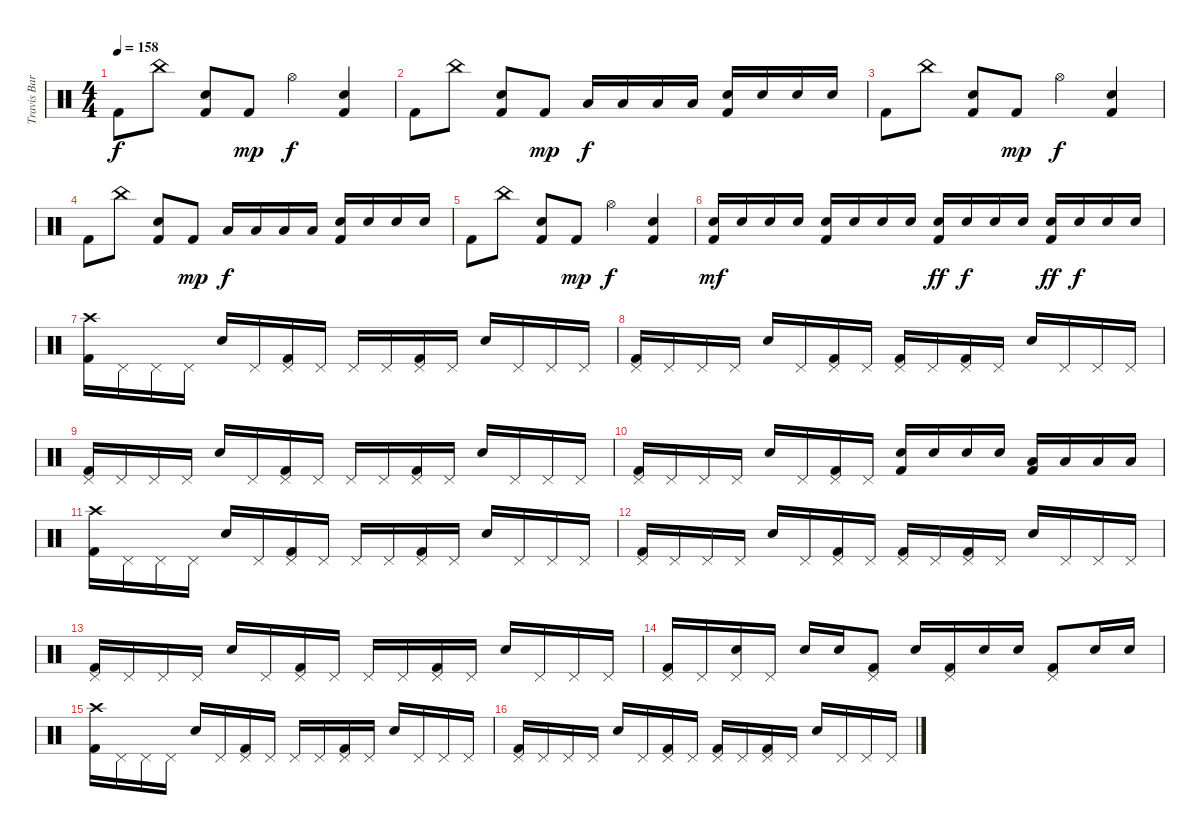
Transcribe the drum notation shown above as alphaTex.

\track ("Travis Barker - Drums" "Travis Bar") {instrument percussion}
\staff {score}
\articulation defaults
\ts (4 4)
\tempo 158
\clef neutral
\ks c "Kick (hit) 2".8{dy f} "China (hit)".8
("Electric Snare (hit)" "Kick (hit) 2").8 "Kick (hit) 2".8{dy mp} "Hi-Hat (open)".4{dy f} ("Electric Snare (hit)" "Kick (hit) 2").4 |
"Kick (hit) 2".8 "China (hit)".8 ("Electric Snare (hit)" "Kick (hit) 2").8 "Kick (hit) 2".8{dy mp} "Low Tom (hit)".16{dy f} "Low Tom (hit)".16 "Low Tom (hit)".16 "Low Tom (hit)".16 ("Electric Snare (hit)" "Kick (hit) 2").16 "Electric Snare (hit)".16 "Electric Snare (hit)".16 "Electric Snare (hit)".16 |
"Kick (hit) 2".8 "China (hit)".8 ("Electric Snare (hit)" "Kick (hit) 2").8 "Kick (hit) 2".8{dy mp} "Hi-Hat (open)".4{dy f} ("Electric Snare (hit)" "Kick (hit) 2").4 |
"Kick (hit) 2".8 "China (hit)".8 ("Electric Snare (hit)" "Kick (hit) 2").8 "Kick (hit) 2".8{dy mp} "Low Tom (hit)".16{dy f} "Low Tom (hit)".16 "Low Tom (hit)".16 "Low Tom (hit)".16 ("Electric Snare (hit)" "Kick (hit) 2").16 "Electric Snare (hit)".16 "Electric Snare (hit)".16 "Electric Snare (hit)".16 |
"Kick (hit) 2".8 "China (hit)".8 ("Electric Snare (hit)" "Kick (hit) 2").8 "Kick (hit) 2".8{dy mp} "Hi-Hat (open)".4{dy f} ("Electric Snare (hit)" "Kick (hit) 2").4 |
("Electric Snare (hit)" "Kick (hit) 2").16{dy mf} "Electric Snare (hit)".16 "Electric Snare (hit)".16 "Electric Snare (hit)".16 ("Electric Snare (hit)" "Kick (hit) 2").16 "Electric Snare (hit)".16 "Electric Snare (hit)".16 "Electric Snare (hit)".16 ("Electric Snare (hit)" "Kick (hit) 2").16{dy ff} "Electric Snare (hit)".16{dy f} "Electric Snare (hit)".16 "Electric Snare (hit)".16 ("Electric Snare (hit)" "Kick (hit) 2").16{dy ff} "Electric Snare (hit)".16{dy f} "Electric Snare (hit)".16 "Electric Snare (hit)".16 |
("Crash high (hit)" "Kick (hit) 2").16 "Pedal Hi-Hat (hit)".16 "Pedal Hi-Hat (hit)".16 "Pedal Hi-Hat (hit)".16 "Electric Snare (hit)".16 "Pedal Hi-Hat (hit)".16 ("Pedal Hi-Hat (hit)" "Kick (hit) 2").16 "Pedal Hi-Hat (hit)".16 "Pedal Hi-Hat (hit)".16 "Pedal Hi-Hat (hit)".16 ("Pedal Hi-Hat (hit)" "Kick (hit) 2").16 "Pedal Hi-Hat (hit)".16 "Electric Snare (hit)".16 "Pedal Hi-Hat (hit)".16 "Pedal Hi-Hat (hit)".16 "Pedal Hi-Hat (hit)".16 |
("Pedal Hi-Hat (hit)" "Kick (hit) 2").16 "Pedal Hi-Hat (hit)".16 "Pedal Hi-Hat (hit)".16 "Pedal Hi-Hat (hit)".16 "Electric Snare (hit)".16 "Pedal Hi-Hat (hit)".16 ("Pedal Hi-Hat (hit)" "Kick (hit) 2").16 "Pedal Hi-Hat (hit)".16 ("Pedal Hi-Hat (hit)" "Kick (hit) 2").16 "Pedal Hi-Hat (hit)".16 ("Pedal Hi-Hat (hit)" "Kick (hit) 2").16 "Pedal Hi-Hat (hit)".16 "Electric Snare (hit)".16 "Pedal Hi-Hat (hit)".16 "Pedal Hi-Hat (hit)".16 "Pedal Hi-Hat (hit)".16 |
("Pedal Hi-Hat (hit)" "Kick (hit) 2").16 "Pedal Hi-Hat (hit)".16 "Pedal Hi-Hat (hit)".16 "Pedal Hi-Hat (hit)".16 "Electric Snare (hit)".16 "Pedal Hi-Hat (hit)".16 ("Pedal Hi-Hat (hit)" "Kick (hit) 2").16 "Pedal Hi-Hat (hit)".16 "Pedal Hi-Hat (hit)".16 "Pedal Hi-Hat (hit)".16 ("Pedal Hi-Hat (hit)" "Kick (hit) 2").16 "Pedal Hi-Hat (hit)".16 "Electric Snare (hit)".16 "Pedal Hi-Hat (hit)".16 "Pedal Hi-Hat (hit)".16 "Pedal Hi-Hat (hit)".16 |
("Pedal Hi-Hat (hit)" "Kick (hit) 2").16 "Pedal Hi-Hat (hit)".16 "Pedal Hi-Hat (hit)".16 "Pedal Hi-Hat (hit)".16 "Electric Snare (hit)".16 "Pedal Hi-Hat (hit)".16 ("Pedal Hi-Hat (hit)" "Kick (hit) 2").16 "Pedal Hi-Hat (hit)".16 ("Electric Snare (hit)" "Kick (hit) 2").16 "Electric Snare (hit)".16 "Electric Snare (hit)".16 "Electric Snare (hit)".16 ("Low Tom (hit)" "Kick (hit) 2").16 "Low Tom (hit)".16 "Low Tom (hit)".16 "Low Tom (hit)".16 |
("Crash high (hit)" "Kick (hit) 2").16 "Pedal Hi-Hat (hit)".16 "Pedal Hi-Hat (hit)".16 "Pedal Hi-Hat (hit)".16 "Electric Snare (hit)".16 "Pedal Hi-Hat (hit)".16 ("Pedal Hi-Hat (hit)" "Kick (hit) 2").16 "Pedal Hi-Hat (hit)".16 "Pedal Hi-Hat (hit)".16 "Pedal Hi-Hat (hit)".16 ("Pedal Hi-Hat (hit)" "Kick (hit) 2").16 "Pedal Hi-Hat (hit)".16 "Electric Snare (hit)".16 "Pedal Hi-Hat (hit)".16 "Pedal Hi-Hat (hit)".16 "Pedal Hi-Hat (hit)".16 |
("Pedal Hi-Hat (hit)" "Kick (hit) 2").16 "Pedal Hi-Hat (hit)".16 "Pedal Hi-Hat (hit)".16 "Pedal Hi-Hat (hit)".16 "Electric Snare (hit)".16 "Pedal Hi-Hat (hit)".16 ("Pedal Hi-Hat (hit)" "Kick (hit) 2").16 "Pedal Hi-Hat (hit)".16 ("Pedal Hi-Hat (hit)" "Kick (hit) 2").16 "Pedal Hi-Hat (hit)".16 ("Pedal Hi-Hat (hit)" "Kick (hit) 2").16 "Pedal Hi-Hat (hit)".16 "Electric Snare (hit)".16 "Pedal Hi-Hat (hit)".16 "Pedal Hi-Hat (hit)".16 "Pedal Hi-Hat (hit)".16 |
("Pedal Hi-Hat (hit)" "Kick (hit) 2").16 "Pedal Hi-Hat (hit)".16 "Pedal Hi-Hat (hit)".16 "Pedal Hi-Hat (hit)".16 "Electric Snare (hit)".16 "Pedal Hi-Hat (hit)".16 ("Pedal Hi-Hat (hit)" "Kick (hit) 2").16 "Pedal Hi-Hat (hit)".16 "Pedal Hi-Hat (hit)".16 "Pedal Hi-Hat (hit)".16 ("Pedal Hi-Hat (hit)" "Kick (hit) 2").16 "Pedal Hi-Hat (hit)".16 "Electric Snare (hit)".16 "Pedal Hi-Hat (hit)".16 "Pedal Hi-Hat (hit)".16 "Pedal Hi-Hat (hit)".16 |
("Pedal Hi-Hat (hit)" "Kick (hit) 2").16 "Pedal Hi-Hat (hit)".16 ("Pedal Hi-Hat (hit)" "Electric Snare (hit)").16 "Pedal Hi-Hat (hit)".16 "Electric Snare (hit)".16 "Electric Snare (hit)".16 ("Pedal Hi-Hat (hit)" "Kick (hit) 2").8 "Electric Snare (hit)".16 ("Pedal Hi-Hat (hit)" "Kick (hit) 2").16 "Electric Snare (hit)".16 "Electric Snare (hit)".16 ("Pedal Hi-Hat (hit)" "Kick (hit) 2").8 "Electric Snare (hit)".16 "Electric Snare (hit)".16 |
("Crash high (hit)" "Kick (hit) 2").16 "Pedal Hi-Hat (hit)".16 "Pedal Hi-Hat (hit)".16 "Pedal Hi-Hat (hit)".16 "Electric Snare (hit)".16 "Pedal Hi-Hat (hit)".16 ("Pedal Hi-Hat (hit)" "Kick (hit) 2").16 "Pedal Hi-Hat (hit)".16 "Pedal Hi-Hat (hit)".16 "Pedal Hi-Hat (hit)".16 ("Pedal Hi-Hat (hit)" "Kick (hit) 2").16 "Pedal Hi-Hat (hit)".16 "Electric Snare (hit)".16 "Pedal Hi-Hat (hit)".16 "Pedal Hi-Hat (hit)".16 "Pedal Hi-Hat (hit)".16 |
("Pedal Hi-Hat (hit)" "Kick (hit) 2").16 "Pedal Hi-Hat (hit)".16 "Pedal Hi-Hat (hit)".16 "Pedal Hi-Hat (hit)".16 "Electric Snare (hit)".16 "Pedal Hi-Hat (hit)".16 ("Pedal Hi-Hat (hit)" "Kick (hit) 2").16 "Pedal Hi-Hat (hit)".16 ("Pedal Hi-Hat (hit)" "Kick (hit) 2").16 "Pedal Hi-Hat (hit)".16 ("Pedal Hi-Hat (hit)" "Kick (hit) 2").16 "Pedal Hi-Hat (hit)".16 "Electric Snare (hit)".16 "Pedal Hi-Hat (hit)".16 "Pedal Hi-Hat (hit)".16 "Pedal Hi-Hat (hit)".16
